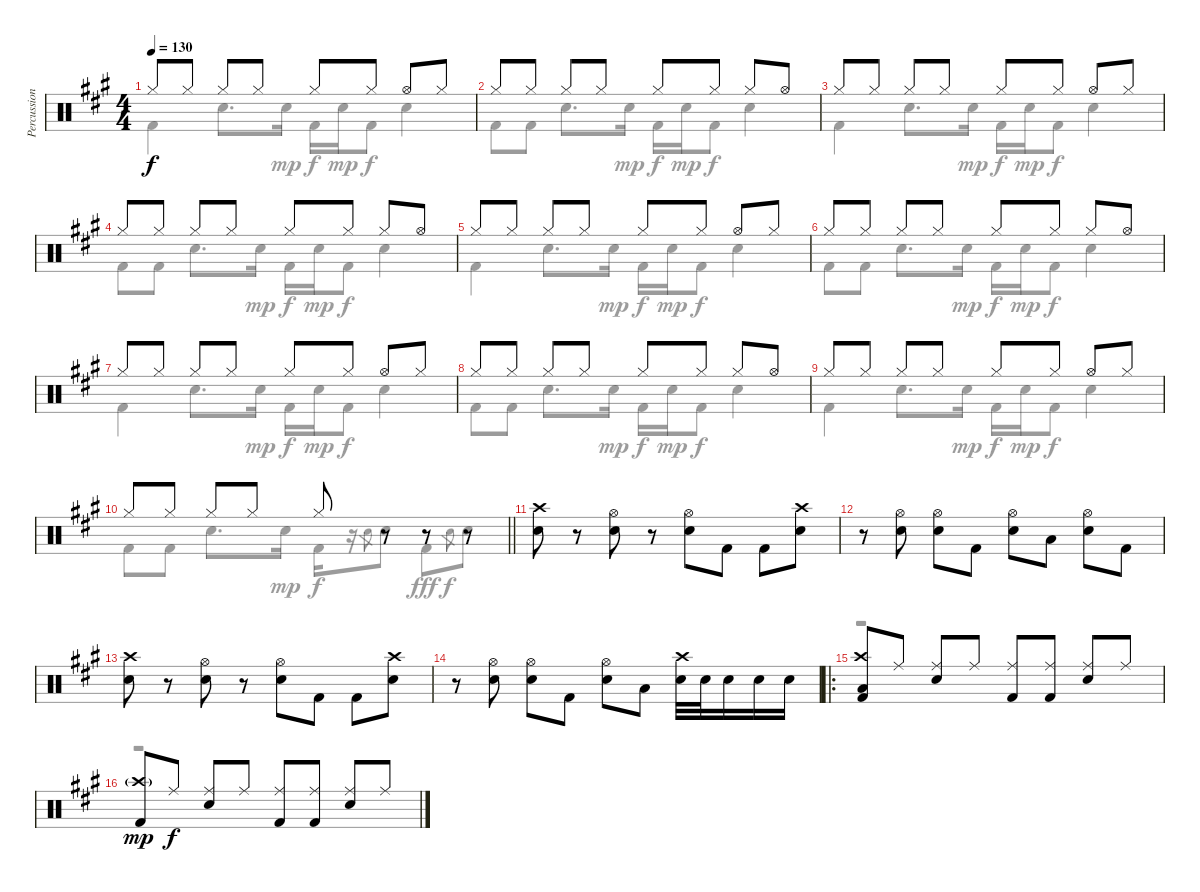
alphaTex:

\track ("Percussion" "Percussion") {instrument percussion}
\staff {score}
\articulation defaults
\voice
\ts (4 4)
\tempo 130
\clef neutral
\ks a "Hi-Hat (closed)".8{dy f} "Hi-Hat (closed)".8 "Hi-Hat (closed)".8 "Hi-Hat (closed)".8 "Hi-Hat (closed)".8 "Hi-Hat (closed)".8 "Hi-Hat (open)".8 "Hi-Hat (closed)".8
|
"Hi-Hat (closed)".8 "Hi-Hat (closed)".8 "Hi-Hat (closed)".8 "Hi-Hat (closed)".8 "Hi-Hat (closed)".8 "Hi-Hat (closed)".8 "Hi-Hat (closed)".8 "Hi-Hat (open)".8 |
"Hi-Hat (closed)".8 "Hi-Hat (closed)".8 "Hi-Hat (closed)".8 "Hi-Hat (closed)".8 "Hi-Hat (closed)".8 "Hi-Hat (closed)".8 "Hi-Hat (open)".8 "Hi-Hat (closed)".8 |
"Hi-Hat (closed)".8 "Hi-Hat (closed)".8 "Hi-Hat (closed)".8 "Hi-Hat (closed)".8 "Hi-Hat (closed)".8 "Hi-Hat (closed)".8 "Hi-Hat (closed)".8 "Hi-Hat (open)".8 |
"Hi-Hat (closed)".8 "Hi-Hat (closed)".8 "Hi-Hat (closed)".8 "Hi-Hat (closed)".8 "Hi-Hat (closed)".8 "Hi-Hat (closed)".8 "Hi-Hat (open)".8 "Hi-Hat (closed)".8 |
"Hi-Hat (closed)".8 "Hi-Hat (closed)".8 "Hi-Hat (closed)".8 "Hi-Hat (closed)".8 "Hi-Hat (closed)".8 "Hi-Hat (closed)".8 "Hi-Hat (closed)".8 "Hi-Hat (open)".8 |
"Hi-Hat (closed)".8 "Hi-Hat (closed)".8 "Hi-Hat (closed)".8 "Hi-Hat (closed)".8 "Hi-Hat (closed)".8 "Hi-Hat (closed)".8 "Hi-Hat (open)".8 "Hi-Hat (closed)".8 |
"Hi-Hat (closed)".8 "Hi-Hat (closed)".8 "Hi-Hat (closed)".8 "Hi-Hat (closed)".8 "Hi-Hat (closed)".8 "Hi-Hat (closed)".8 "Hi-Hat (closed)".8 "Hi-Hat (open)".8 |
"Hi-Hat (closed)".8 "Hi-Hat (closed)".8 "Hi-Hat (closed)".8 "Hi-Hat (closed)".8 "Hi-Hat (closed)".8 "Hi-Hat (closed)".8 "Hi-Hat (open)".8 "Hi-Hat (closed)".8 |
\barLineRight lightlight "Hi-Hat (closed)".8 "Hi-Hat (closed)".8 "Hi-Hat (closed)".8 "Hi-Hat (closed)".8 "Hi-Hat (closed)".8
r.8 r.8 r.8 |
("Electric Snare (hit)" "Crash high (hit)").8 r.8 ("Hi-Hat (open)" "Electric Snare (hit)").8 r.8 ("Hi-Hat (open)" "Electric Snare (hit)").8 "Kick (hit) 2".8 "Kick (hit) 2".8 ("Crash high (hit)" "Electric Snare (hit)").8 |
r.8 ("Electric Snare (hit)" "Hi-Hat (open)").8 ("Electric Snare (hit)" "Hi-Hat (open)").8 "Kick (hit) 2".8 ("Hi-Hat (open)" "Electric Snare (hit)").8 "Low Floor Tom (hit)".8 ("Hi-Hat (open)" "Electric Snare (hit)").8 "Kick (hit) 2".8 |
("Electric Snare (hit)" "Crash high (hit)").8 r.8 ("Hi-Hat (open)" "Electric Snare (hit)").8 r.8 ("Hi-Hat (open)" "Electric Snare (hit)").8 "Kick (hit) 2".8 "Kick (hit) 2".8 ("Crash high (hit)" "Electric Snare (hit)").8 |
r.8 ("Electric Snare (hit)" "Hi-Hat (open)").8 ("Electric Snare (hit)" "Hi-Hat (open)").8 "Kick (hit) 2".8 ("Hi-Hat (open)" "Electric Snare (hit)").8 "Low Floor Tom (hit)".8 ("Crash high (hit)" "Electric Snare (hit)").32 "Electric Snare (hit)".32 "Electric Snare (hit)".16 "Electric Snare (hit)".16 "Electric Snare (hit)".16 |
\ro
("Crash high (hit)" "Low Floor Tom (hit)" "Kick (hit) 2").8 "Ride (middle)".8 ("Ride (middle)" "Electric Snare (hit)").8 "Ride (middle)".8 ("Ride (middle)" "Kick (hit) 2").8 ("Ride (middle)" "Kick (hit) 2").8 ("Ride (middle)" "Electric Snare (hit)").8 "Ride (middle)".8 |
("Crash high (hit)"{g} "Kick (hit) 2").8{dy mp} "Ride (middle)".8{dy f} ("Ride (middle)" "Electric Snare (hit)").8 "Ride (middle)".8 ("Ride (middle)" "Kick (hit) 2").8 ("Ride (middle)" "Kick (hit) 2").8 ("Ride (middle)" "Electric Snare (hit)").8 "Ride (middle)".8
\voice
\clef neutral
\ottava regular
\simile none
\ks a "Kick (hit) 2".4{dy f} "Electric Snare (hit)".8{d} "Electric Snare (hit)".16{dy mp} "Kick (hit) 2".16{dy f} "Electric Snare (hit)".16{dy mp} "Kick (hit) 2".8{dy f} "Electric Snare (hit)".4
|
"Kick (hit) 2".8 "Kick (hit) 2".8 "Electric Snare (hit)".8{d} "Electric Snare (hit)".16{dy mp} "Kick (hit) 2".16{dy f} "Electric Snare (hit)".16{dy mp} "Kick (hit) 2".8{dy f} "Electric Snare (hit)".4 |
"Kick (hit) 2".4 "Electric Snare (hit)".8{d} "Electric Snare (hit)".16{dy mp} "Kick (hit) 2".16{dy f} "Electric Snare (hit)".16{dy mp} "Kick (hit) 2".8{dy f} "Electric Snare (hit)".4 |
"Kick (hit) 2".8 "Kick (hit) 2".8 "Electric Snare (hit)".8{d} "Electric Snare (hit)".16{dy mp} "Kick (hit) 2".16{dy f} "Electric Snare (hit)".16{dy mp} "Kick (hit) 2".8{dy f} "Electric Snare (hit)".4 |
"Kick (hit) 2".4 "Electric Snare (hit)".8{d} "Electric Snare (hit)".16{dy mp} "Kick (hit) 2".16{dy f} "Electric Snare (hit)".16{dy mp} "Kick (hit) 2".8{dy f} "Electric Snare (hit)".4 |
"Kick (hit) 2".8 "Kick (hit) 2".8 "Electric Snare (hit)".8{d} "Electric Snare (hit)".16{dy mp} "Kick (hit) 2".16{dy f} "Electric Snare (hit)".16{dy mp} "Kick (hit) 2".8{dy f} "Electric Snare (hit)".4 |
"Kick (hit) 2".4 "Electric Snare (hit)".8{d} "Electric Snare (hit)".16{dy mp} "Kick (hit) 2".16{dy f} "Electric Snare (hit)".16{dy mp} "Kick (hit) 2".8{dy f} "Electric Snare (hit)".4 |
"Kick (hit) 2".8 "Kick (hit) 2".8 "Electric Snare (hit)".8{d} "Electric Snare (hit)".16{dy mp} "Kick (hit) 2".16{dy f} "Electric Snare (hit)".16{dy mp} "Kick (hit) 2".8{dy f} "Electric Snare (hit)".4 |
"Kick (hit) 2".4 "Electric Snare (hit)".8{d} "Electric Snare (hit)".16{dy mp} "Kick (hit) 2".16{dy f} "Electric Snare (hit)".16{dy mp} "Kick (hit) 2".8{dy f} "Electric Snare (hit)".4 |
\barLineRight lightlight "Kick (hit) 2".8 "Kick (hit) 2".8 "Electric Snare (hit)".8{d} "Electric Snare (hit)".16{dy mp} "Kick (hit) 2".16{dy f}
r.16 "Electric Snare (hit)".8{gr} "Electric Snare (hit)".8 "Kick (hit) 2".8{dy fff} "Electric Snare (hit)".8{gr dy f} "Electric Snare (hit)".8 |
|
|
|
|
r.1 |
r.1
